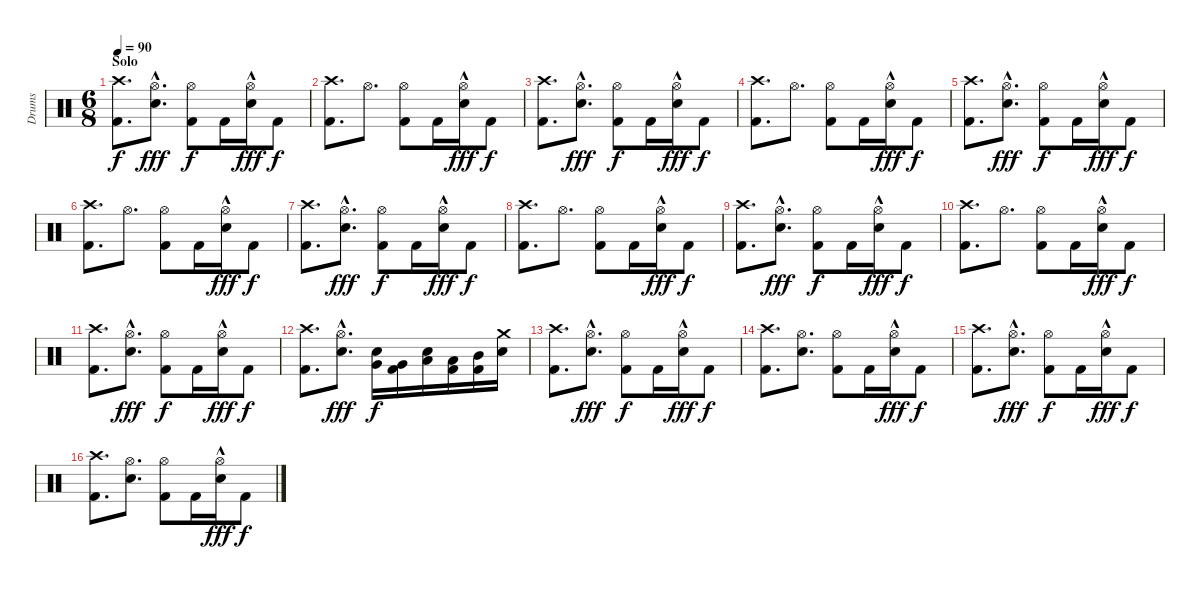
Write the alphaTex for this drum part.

\track ("Drums" "Drums") {instrument percussion}
\staff {score}
\articulation defaults
\ts (6 8)
\section ("" "Solo")
\tempo 90
\clef neutral
\ks c
("Kick (hit) 2" "Crash high (hit)").8{d dy f} ("Electric Snare (hit)"{hac} "Hi-Hat (open)").8{d dy fff} ("Kick (hit) 2" "Hi-Hat (open)").8{dy f} "Kick (hit) 2".16 ("Electric Snare (hit)"{hac} "Hi-Hat (open)").16{dy fff} "Kick (hit) 2".8{dy f} |
("Kick (hit) 2" "Crash high (hit)").8{d} "Hi-Hat (open)".8{d} ("Kick (hit) 2" "Hi-Hat (open)").8 "Kick (hit) 2".16 ("Electric Snare (hit)"{hac} "Hi-Hat (open)").16{dy fff} "Kick (hit) 2".8{dy f} |
("Kick (hit) 2" "Crash high (hit)").8{d} ("Electric Snare (hit)"{hac} "Hi-Hat (open)").8{d dy fff} ("Kick (hit) 2" "Hi-Hat (open)").8{dy f} "Kick (hit) 2".16 ("Electric Snare (hit)"{hac} "Hi-Hat (open)").16{dy fff} "Kick (hit) 2".8{dy f} |
("Kick (hit) 2" "Crash high (hit)").8{d} "Hi-Hat (open)".8{d} ("Kick (hit) 2" "Hi-Hat (open)").8 "Kick (hit) 2".16 ("Electric Snare (hit)"{hac} "Hi-Hat (open)").16{dy fff} "Kick (hit) 2".8{dy f} |
("Kick (hit) 2" "Crash high (hit)").8{d} ("Electric Snare (hit)"{hac} "Hi-Hat (open)").8{d dy fff} ("Kick (hit) 2" "Hi-Hat (open)").8{dy f} "Kick (hit) 2".16 ("Electric Snare (hit)"{hac} "Hi-Hat (open)").16{dy fff} "Kick (hit) 2".8{dy f} |
("Kick (hit) 2" "Crash high (hit)").8{d} "Hi-Hat (open)".8{d} ("Kick (hit) 2" "Hi-Hat (open)").8 "Kick (hit) 2".16 ("Electric Snare (hit)"{hac} "Hi-Hat (open)").16{dy fff} "Kick (hit) 2".8{dy f} |
("Kick (hit) 2" "Crash high (hit)").8{d} ("Electric Snare (hit)"{hac} "Hi-Hat (open)").8{d dy fff} ("Kick (hit) 2" "Hi-Hat (open)").8{dy f} "Kick (hit) 2".16 ("Electric Snare (hit)"{hac} "Hi-Hat (open)").16{dy fff} "Kick (hit) 2".8{dy f} |
("Kick (hit) 2" "Crash high (hit)").8{d} "Hi-Hat (open)".8{d} ("Kick (hit) 2" "Hi-Hat (open)").8 "Kick (hit) 2".16 ("Electric Snare (hit)"{hac} "Hi-Hat (open)").16{dy fff} "Kick (hit) 2".8{dy f} |
("Kick (hit) 2" "Crash high (hit)").8{d} ("Electric Snare (hit)"{hac} "Hi-Hat (open)").8{d dy fff} ("Kick (hit) 2" "Hi-Hat (open)").8{dy f} "Kick (hit) 2".16 ("Electric Snare (hit)"{hac} "Hi-Hat (open)").16{dy fff} "Kick (hit) 2".8{dy f} |
("Kick (hit) 2" "Crash high (hit)").8{d} "Hi-Hat (open)".8{d} ("Kick (hit) 2" "Hi-Hat (open)").8 "Kick (hit) 2".16 ("Electric Snare (hit)"{hac} "Hi-Hat (open)").16{dy fff} "Kick (hit) 2".8{dy f} |
("Kick (hit) 2" "Crash high (hit)").8{d} ("Electric Snare (hit)"{hac} "Hi-Hat (open)").8{d dy fff} ("Kick (hit) 2" "Hi-Hat (open)").8{dy f} "Kick (hit) 2".16 ("Electric Snare (hit)"{hac} "Hi-Hat (open)").16{dy fff} "Kick (hit) 2".8{dy f} |
("Kick (hit) 2" "Crash high (hit)").8{d} ("Electric Snare (hit)"{hac} "Hi-Hat (open)").8{d dy fff} ("Very Low Tom (hit)" "Snare (hit) 2").16{dy f} ("Kick (hit) 2" "Very Low Tom (hit)").16 ("Low Tom (hit)" "Snare (hit) 2").16 ("Kick (hit) 2" "Low Tom (hit)").16 ("Kick (hit) 2" "Mid Tom (hit)").16 ("Snare (hit) 2" "Crash medium (hit)").16 |
("Kick (hit) 2" "Crash high (hit)").8{d} ("Electric Snare (hit)"{hac} "Hi-Hat (open)").8{d dy fff} ("Kick (hit) 2" "Hi-Hat (open)").8{dy f} "Kick (hit) 2".16 ("Electric Snare (hit)"{hac} "Hi-Hat (open)").16{dy fff} "Kick (hit) 2".8{dy f} |
("Kick (hit) 2" "Crash high (hit)").8{d} ("Electric Snare (hit)" "Hi-Hat (open)").8{d} ("Kick (hit) 2" "Hi-Hat (open)").8 "Kick (hit) 2".16 ("Electric Snare (hit)"{hac} "Hi-Hat (open)").16{dy fff} "Kick (hit) 2".8{dy f} |
("Kick (hit) 2" "Crash high (hit)").8{d} ("Electric Snare (hit)"{hac} "Hi-Hat (open)").8{d dy fff} ("Kick (hit) 2" "Hi-Hat (open)").8{dy f} "Kick (hit) 2".16 ("Electric Snare (hit)"{hac} "Hi-Hat (open)").16{dy fff} "Kick (hit) 2".8{dy f} |
("Kick (hit) 2" "Crash high (hit)").8{d} ("Electric Snare (hit)" "Hi-Hat (open)").8{d} ("Kick (hit) 2" "Hi-Hat (open)").8 "Kick (hit) 2".16 ("Electric Snare (hit)"{hac} "Hi-Hat (open)").16{dy fff} "Kick (hit) 2".8{dy f}
